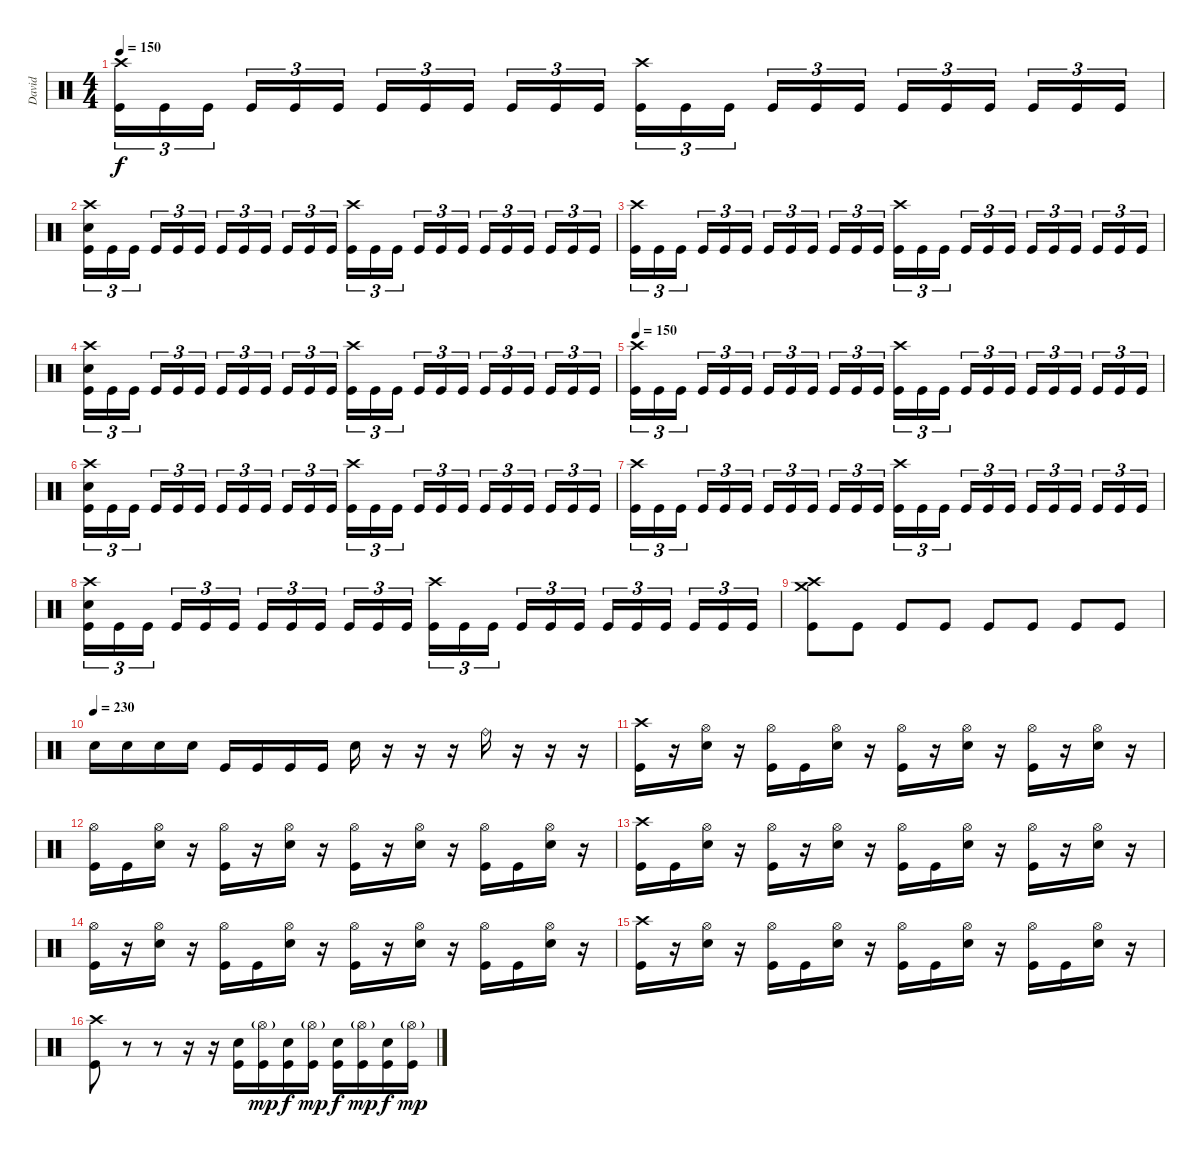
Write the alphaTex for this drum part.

\track ("David" "David") {instrument percussion}
\staff {score}
\articulation defaults
\ts (4 4)
\tempo 150
\clef neutral
\ks c
("Crash high (hit)" "Kick (hit)").16{tu (3 2) dy f} "Kick (hit)".16{tu (3 2)} "Kick (hit)".16{tu (3 2) beam splitsecondary} "Kick (hit)".16{tu (3 2)} "Kick (hit)".16{tu (3 2)} "Kick (hit)".16{tu (3 2)} "Kick (hit)".16{tu (3 2)} "Kick (hit)".16{tu (3 2)} "Kick (hit)".16{tu (3 2) beam splitsecondary} "Kick (hit)".16{tu (3 2)} "Kick (hit)".16{tu (3 2)} "Kick (hit)".16{tu (3 2)} ("Crash high (hit)" "Kick (hit)").16{tu (3 2)} "Kick (hit)".16{tu (3 2)} "Kick (hit)".16{tu (3 2) beam splitsecondary} "Kick (hit)".16{tu (3 2)} "Kick (hit)".16{tu (3 2)} "Kick (hit)".16{tu (3 2)} "Kick (hit)".16{tu (3 2)} "Kick (hit)".16{tu (3 2)} "Kick (hit)".16{tu (3 2) beam splitsecondary} "Kick (hit)".16{tu (3 2)} "Kick (hit)".16{tu (3 2)} "Kick (hit)".16{tu (3 2)} |
("Crash high (hit)" "Electric Snare (hit)" "Kick (hit)").16{tu (3 2)} "Kick (hit)".16{tu (3 2)} "Kick (hit)".16{tu (3 2) beam splitsecondary} "Kick (hit)".16{tu (3 2)} "Kick (hit)".16{tu (3 2)} "Kick (hit)".16{tu (3 2)} "Kick (hit)".16{tu (3 2)} "Kick (hit)".16{tu (3 2)} "Kick (hit)".16{tu (3 2) beam splitsecondary} "Kick (hit)".16{tu (3 2)} "Kick (hit)".16{tu (3 2)} "Kick (hit)".16{tu (3 2)} ("Crash high (hit)" "Kick (hit)").16{tu (3 2)} "Kick (hit)".16{tu (3 2)} "Kick (hit)".16{tu (3 2) beam splitsecondary} "Kick (hit)".16{tu (3 2)} "Kick (hit)".16{tu (3 2)} "Kick (hit)".16{tu (3 2)} "Kick (hit)".16{tu (3 2)} "Kick (hit)".16{tu (3 2)} "Kick (hit)".16{tu (3 2) beam splitsecondary} "Kick (hit)".16{tu (3 2)} "Kick (hit)".16{tu (3 2)} "Kick (hit)".16{tu (3 2)} |
("Crash high (hit)" "Kick (hit)").16{tu (3 2)} "Kick (hit)".16{tu (3 2)} "Kick (hit)".16{tu (3 2) beam splitsecondary} "Kick (hit)".16{tu (3 2)} "Kick (hit)".16{tu (3 2)} "Kick (hit)".16{tu (3 2)} "Kick (hit)".16{tu (3 2)} "Kick (hit)".16{tu (3 2)} "Kick (hit)".16{tu (3 2) beam splitsecondary} "Kick (hit)".16{tu (3 2)} "Kick (hit)".16{tu (3 2)} "Kick (hit)".16{tu (3 2)} ("Crash high (hit)" "Kick (hit)").16{tu (3 2)} "Kick (hit)".16{tu (3 2)} "Kick (hit)".16{tu (3 2) beam splitsecondary} "Kick (hit)".16{tu (3 2)} "Kick (hit)".16{tu (3 2)} "Kick (hit)".16{tu (3 2)} "Kick (hit)".16{tu (3 2)} "Kick (hit)".16{tu (3 2)} "Kick (hit)".16{tu (3 2) beam splitsecondary} "Kick (hit)".16{tu (3 2)} "Kick (hit)".16{tu (3 2)} "Kick (hit)".16{tu (3 2)} |
("Crash high (hit)" "Electric Snare (hit)" "Kick (hit)").16{tu (3 2)} "Kick (hit)".16{tu (3 2)} "Kick (hit)".16{tu (3 2) beam splitsecondary} "Kick (hit)".16{tu (3 2)} "Kick (hit)".16{tu (3 2)} "Kick (hit)".16{tu (3 2)} "Kick (hit)".16{tu (3 2)} "Kick (hit)".16{tu (3 2)} "Kick (hit)".16{tu (3 2) beam splitsecondary} "Kick (hit)".16{tu (3 2)} "Kick (hit)".16{tu (3 2)} "Kick (hit)".16{tu (3 2)} ("Crash high (hit)" "Kick (hit)").16{tu (3 2)} "Kick (hit)".16{tu (3 2)} "Kick (hit)".16{tu (3 2) beam splitsecondary} "Kick (hit)".16{tu (3 2)} "Kick (hit)".16{tu (3 2)} "Kick (hit)".16{tu (3 2)} "Kick (hit)".16{tu (3 2)} "Kick (hit)".16{tu (3 2)} "Kick (hit)".16{tu (3 2) beam splitsecondary} "Kick (hit)".16{tu (3 2)} "Kick (hit)".16{tu (3 2)} "Kick (hit)".16{tu (3 2)} |
\tempo 150
("Crash high (hit)" "Kick (hit)").16{tu (3 2)} "Kick (hit)".16{tu (3 2)} "Kick (hit)".16{tu (3 2) beam splitsecondary} "Kick (hit)".16{tu (3 2)} "Kick (hit)".16{tu (3 2)} "Kick (hit)".16{tu (3 2)} "Kick (hit)".16{tu (3 2)} "Kick (hit)".16{tu (3 2)} "Kick (hit)".16{tu (3 2) beam splitsecondary} "Kick (hit)".16{tu (3 2)} "Kick (hit)".16{tu (3 2)} "Kick (hit)".16{tu (3 2)} ("Crash high (hit)" "Kick (hit)").16{tu (3 2)} "Kick (hit)".16{tu (3 2)} "Kick (hit)".16{tu (3 2) beam splitsecondary} "Kick (hit)".16{tu (3 2)} "Kick (hit)".16{tu (3 2)} "Kick (hit)".16{tu (3 2)} "Kick (hit)".16{tu (3 2)} "Kick (hit)".16{tu (3 2)} "Kick (hit)".16{tu (3 2) beam splitsecondary} "Kick (hit)".16{tu (3 2)} "Kick (hit)".16{tu (3 2)} "Kick (hit)".16{tu (3 2)} |
("Crash high (hit)" "Electric Snare (hit)" "Kick (hit)").16{tu (3 2)} "Kick (hit)".16{tu (3 2)} "Kick (hit)".16{tu (3 2) beam splitsecondary} "Kick (hit)".16{tu (3 2)} "Kick (hit)".16{tu (3 2)} "Kick (hit)".16{tu (3 2)} "Kick (hit)".16{tu (3 2)} "Kick (hit)".16{tu (3 2)} "Kick (hit)".16{tu (3 2) beam splitsecondary} "Kick (hit)".16{tu (3 2)} "Kick (hit)".16{tu (3 2)} "Kick (hit)".16{tu (3 2)} ("Crash high (hit)" "Kick (hit)").16{tu (3 2)} "Kick (hit)".16{tu (3 2)} "Kick (hit)".16{tu (3 2) beam splitsecondary} "Kick (hit)".16{tu (3 2)} "Kick (hit)".16{tu (3 2)} "Kick (hit)".16{tu (3 2)} "Kick (hit)".16{tu (3 2)} "Kick (hit)".16{tu (3 2)} "Kick (hit)".16{tu (3 2) beam splitsecondary} "Kick (hit)".16{tu (3 2)} "Kick (hit)".16{tu (3 2)} "Kick (hit)".16{tu (3 2)} |
("Crash high (hit)" "Kick (hit)").16{tu (3 2)} "Kick (hit)".16{tu (3 2)} "Kick (hit)".16{tu (3 2) beam splitsecondary} "Kick (hit)".16{tu (3 2)} "Kick (hit)".16{tu (3 2)} "Kick (hit)".16{tu (3 2)} "Kick (hit)".16{tu (3 2)} "Kick (hit)".16{tu (3 2)} "Kick (hit)".16{tu (3 2) beam splitsecondary} "Kick (hit)".16{tu (3 2)} "Kick (hit)".16{tu (3 2)} "Kick (hit)".16{tu (3 2)} ("Crash high (hit)" "Kick (hit)").16{tu (3 2)} "Kick (hit)".16{tu (3 2)} "Kick (hit)".16{tu (3 2) beam splitsecondary} "Kick (hit)".16{tu (3 2)} "Kick (hit)".16{tu (3 2)} "Kick (hit)".16{tu (3 2)} "Kick (hit)".16{tu (3 2)} "Kick (hit)".16{tu (3 2)} "Kick (hit)".16{tu (3 2) beam splitsecondary} "Kick (hit)".16{tu (3 2)} "Kick (hit)".16{tu (3 2)} "Kick (hit)".16{tu (3 2)} |
("Crash high (hit)" "Electric Snare (hit)" "Kick (hit)").16{tu (3 2)} "Kick (hit)".16{tu (3 2)} "Kick (hit)".16{tu (3 2) beam splitsecondary} "Kick (hit)".16{tu (3 2)} "Kick (hit)".16{tu (3 2)} "Kick (hit)".16{tu (3 2)} "Kick (hit)".16{tu (3 2)} "Kick (hit)".16{tu (3 2)} "Kick (hit)".16{tu (3 2) beam splitsecondary} "Kick (hit)".16{tu (3 2)} "Kick (hit)".16{tu (3 2)} "Kick (hit)".16{tu (3 2)} ("Crash high (hit)" "Kick (hit)").16{tu (3 2)} "Kick (hit)".16{tu (3 2)} "Kick (hit)".16{tu (3 2) beam splitsecondary} "Kick (hit)".16{tu (3 2)} "Kick (hit)".16{tu (3 2)} "Kick (hit)".16{tu (3 2)} "Kick (hit)".16{tu (3 2)} "Kick (hit)".16{tu (3 2)} "Kick (hit)".16{tu (3 2) beam splitsecondary} "Kick (hit)".16{tu (3 2)} "Kick (hit)".16{tu (3 2)} "Kick (hit)".16{tu (3 2)} |
("Crash high (hit)" "Crash medium (hit)" "Kick (hit)").8 "Kick (hit)".8 "Kick (hit)".8 "Kick (hit)".8 "Kick (hit)".8 "Kick (hit)".8 "Kick (hit)".8 "Kick (hit)".8 |
\tempo (230)
"Electric Snare (hit)".16 "Electric Snare (hit)".16 "Electric Snare (hit)".16 "Electric Snare (hit)".16 "Kick (hit)".16 "Kick (hit)".16 "Kick (hit)".16 "Kick (hit)".16 "Electric Snare (hit)".16 r.16 r.16 r.16 "Ride (bell)".16 r.16 r.16 r.16 |
("Crash high (hit)" "Kick (hit)").16 r.16 ("Hi-Hat (open)" "Electric Snare (hit)").16 r.16 ("Hi-Hat (open)" "Kick (hit)").16 "Kick (hit)".16 ("Hi-Hat (open)" "Electric Snare (hit)").16 r.16 ("Hi-Hat (open)" "Kick (hit)").16 r.16 ("Hi-Hat (open)" "Electric Snare (hit)").16 r.16 ("Hi-Hat (open)" "Kick (hit)").16 r.16 ("Hi-Hat (open)" "Electric Snare (hit)").16 r.16 |
("Hi-Hat (open)" "Kick (hit)").16 "Kick (hit)".16 ("Hi-Hat (open)" "Electric Snare (hit)").16 r.16 ("Hi-Hat (open)" "Kick (hit)").16 r.16 ("Hi-Hat (open)" "Electric Snare (hit)").16 r.16 ("Hi-Hat (open)" "Kick (hit)").16 r.16 ("Hi-Hat (open)" "Electric Snare (hit)").16 r.16 ("Hi-Hat (open)" "Kick (hit)").16 "Kick (hit)".16 ("Hi-Hat (open)" "Electric Snare (hit)").16 r.16 |
("Crash high (hit)" "Kick (hit)").16 "Kick (hit)".16 ("Hi-Hat (open)" "Electric Snare (hit)").16 r.16 ("Hi-Hat (open)" "Kick (hit)").16 r.16 ("Hi-Hat (open)" "Electric Snare (hit)").16 r.16 ("Hi-Hat (open)" "Kick (hit)").16 "Kick (hit)".16 ("Hi-Hat (open)" "Electric Snare (hit)").16 r.16 ("Hi-Hat (open)" "Kick (hit)").16 r.16 ("Hi-Hat (open)" "Electric Snare (hit)").16 r.16 |
("Hi-Hat (open)" "Kick (hit)").16 r.16 ("Hi-Hat (open)" "Electric Snare (hit)").16 r.16 ("Hi-Hat (open)" "Kick (hit)").16 "Kick (hit)".16 ("Hi-Hat (open)" "Electric Snare (hit)").16 r.16 ("Hi-Hat (open)" "Kick (hit)").16 r.16 ("Hi-Hat (open)" "Electric Snare (hit)").16 r.16 ("Hi-Hat (open)" "Kick (hit)").16 "Kick (hit)".16 ("Hi-Hat (open)" "Electric Snare (hit)").16 r.16 |
("Crash high (hit)" "Kick (hit)").16 r.16 ("Hi-Hat (open)" "Electric Snare (hit)").16 r.16 ("Hi-Hat (open)" "Kick (hit)").16 "Kick (hit)".16 ("Hi-Hat (open)" "Electric Snare (hit)").16 r.16 ("Hi-Hat (open)" "Kick (hit)").16 "Kick (hit)".16 ("Hi-Hat (open)" "Electric Snare (hit)").16 r.16 ("Hi-Hat (open)" "Kick (hit)").16 "Kick (hit)".16 ("Hi-Hat (open)" "Electric Snare (hit)").16 r.16 |
("Crash high (hit)" "Kick (hit)").8 r.8 r.8 r.16 r.16 ("Electric Snare (hit)" "Kick (hit)").16 ("Hi-Hat (open)"{g} "Kick (hit)").16{dy mp} ("Electric Snare (hit)" "Kick (hit)").16{dy f} ("Hi-Hat (open)"{g} "Kick (hit)").16{dy mp} ("Electric Snare (hit)" "Kick (hit)").16{dy f} ("Hi-Hat (open)"{g} "Kick (hit)").16{dy mp} ("Electric Snare (hit)" "Kick (hit)").16{dy f} ("Hi-Hat (open)"{g} "Kick (hit)").16{dy mp}
